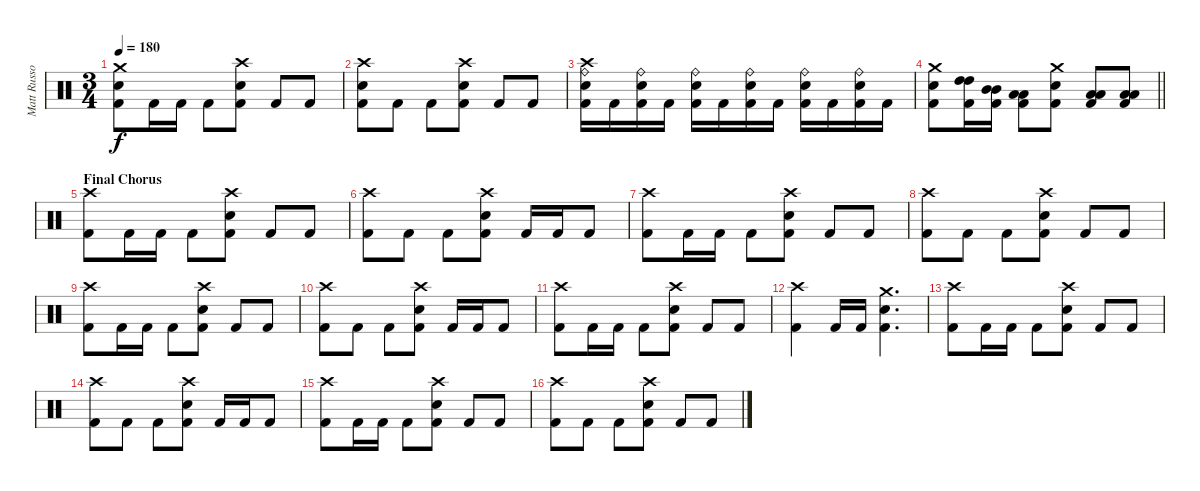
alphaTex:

\track ("Matt Russo" "Matt Russo") {instrument percussion}
\staff {score}
\articulation defaults
\ts (3 4)
\tempo 180
\clef neutral
\ks c
("Crash medium (hit)" "Electric Snare (hit)" "Kick (hit) 2").8{dy f} "Kick (hit) 2".16 "Kick (hit) 2".16 "Kick (hit) 2".8 ("Crash high (hit)" "Electric Snare (hit)" "Kick (hit) 2").8 "Kick (hit) 2".8 "Kick (hit) 2".8 |
("Crash high (hit)" "Electric Snare (hit)" "Kick (hit) 2").8 "Kick (hit) 2".8 "Kick (hit) 2".8 ("Crash high (hit)" "Electric Snare (hit)" "Kick (hit) 2").8 "Kick (hit) 2".8 "Kick (hit) 2".8 |
("Crash high (hit)" "Ride (bell)" "Electric Snare (hit)" "Kick (hit) 2").16 "Kick (hit) 2".16 ("Ride (bell)" "Electric Snare (hit)" "Kick (hit) 2").16 "Kick (hit) 2".16 ("Ride (bell)" "Electric Snare (hit)" "Kick (hit) 2").16 "Kick (hit) 2".16 ("Ride (bell)" "Electric Snare (hit)" "Kick (hit) 2").16 "Kick (hit) 2".16 ("Ride (bell)" "Electric Snare (hit)" "Kick (hit) 2").16 "Kick (hit) 2".16 ("Ride (bell)" "Electric Snare (hit)" "Kick (hit) 2").16 "Kick (hit) 2".16 |
\barLineRight lightlight
("Crash medium (hit)" "Electric Snare (hit)" "Kick (hit) 2").8 ("High Tom (hit)" "High Tom (hit)" "Kick (hit) 2").16 ("Mid Tom (hit)" "Mid Tom (hit)" "Kick (hit) 2").16 ("Low Tom (hit)" "Low Tom (hit)" "Kick (hit) 2").8 ("Crash medium (hit)" "Electric Snare (hit)" "Kick (hit) 2").8 ("Low Tom (hit)" "Low Floor Tom (hit)" "Kick (hit) 2").8 ("Low Tom (hit)" "Low Floor Tom (hit)" "Kick (hit) 2").8 |
\section ("" "Final Chorus")
("Crash high (hit)" "Kick (hit) 2").8 "Kick (hit) 2".16 "Kick (hit) 2".16 "Kick (hit) 2".8 ("Crash high (hit)" "Electric Snare (hit)" "Kick (hit) 2").8 "Kick (hit) 2".8 "Kick (hit) 2".8 |
("Crash high (hit)" "Kick (hit) 2").8 "Kick (hit) 2".8 "Kick (hit) 2".8 ("Crash high (hit)" "Electric Snare (hit)" "Kick (hit) 2").8 "Kick (hit) 2".16 "Kick (hit) 2".16 "Kick (hit) 2".8 |
("Crash high (hit)" "Kick (hit) 2").8 "Kick (hit) 2".16 "Kick (hit) 2".16 "Kick (hit) 2".8 ("Crash high (hit)" "Electric Snare (hit)" "Kick (hit) 2").8 "Kick (hit) 2".8 "Kick (hit) 2".8 |
("Crash high (hit)" "Kick (hit) 2").8 "Kick (hit) 2".8 "Kick (hit) 2".8 ("Crash high (hit)" "Electric Snare (hit)" "Kick (hit) 2").8 "Kick (hit) 2".8 "Kick (hit) 2".8 |
("Crash high (hit)" "Kick (hit) 2").8 "Kick (hit) 2".16 "Kick (hit) 2".16 "Kick (hit) 2".8 ("Crash high (hit)" "Electric Snare (hit)" "Kick (hit) 2").8 "Kick (hit) 2".8 "Kick (hit) 2".8 |
("Crash high (hit)" "Kick (hit) 2").8 "Kick (hit) 2".8 "Kick (hit) 2".8 ("Crash high (hit)" "Electric Snare (hit)" "Kick (hit) 2").8 "Kick (hit) 2".16 "Kick (hit) 2".16 "Kick (hit) 2".8 |
("Crash high (hit)" "Kick (hit) 2").8 "Kick (hit) 2".16 "Kick (hit) 2".16 "Kick (hit) 2".8 ("Crash high (hit)" "Electric Snare (hit)" "Kick (hit) 2").8 "Kick (hit) 2".8 "Kick (hit) 2".8 |
("Crash high (hit)" "Kick (hit) 2").4 "Kick (hit) 2".16 "Kick (hit) 2".16 ("Crash medium (hit)" "Electric Snare (hit)" "Kick (hit) 2").4{d} |
("Crash high (hit)" "Kick (hit) 2").8 "Kick (hit) 2".16 "Kick (hit) 2".16 "Kick (hit) 2".8 ("Crash high (hit)" "Electric Snare (hit)" "Kick (hit) 2").8 "Kick (hit) 2".8 "Kick (hit) 2".8 |
("Crash high (hit)" "Kick (hit) 2").8 "Kick (hit) 2".8 "Kick (hit) 2".8 ("Crash high (hit)" "Electric Snare (hit)" "Kick (hit) 2").8 "Kick (hit) 2".16 "Kick (hit) 2".16 "Kick (hit) 2".8 |
("Crash high (hit)" "Kick (hit) 2").8 "Kick (hit) 2".16 "Kick (hit) 2".16 "Kick (hit) 2".8 ("Crash high (hit)" "Electric Snare (hit)" "Kick (hit) 2").8 "Kick (hit) 2".8 "Kick (hit) 2".8 |
("Crash high (hit)" "Kick (hit) 2").8 "Kick (hit) 2".8 "Kick (hit) 2".8 ("Crash high (hit)" "Electric Snare (hit)" "Kick (hit) 2").8 "Kick (hit) 2".8 "Kick (hit) 2".8
